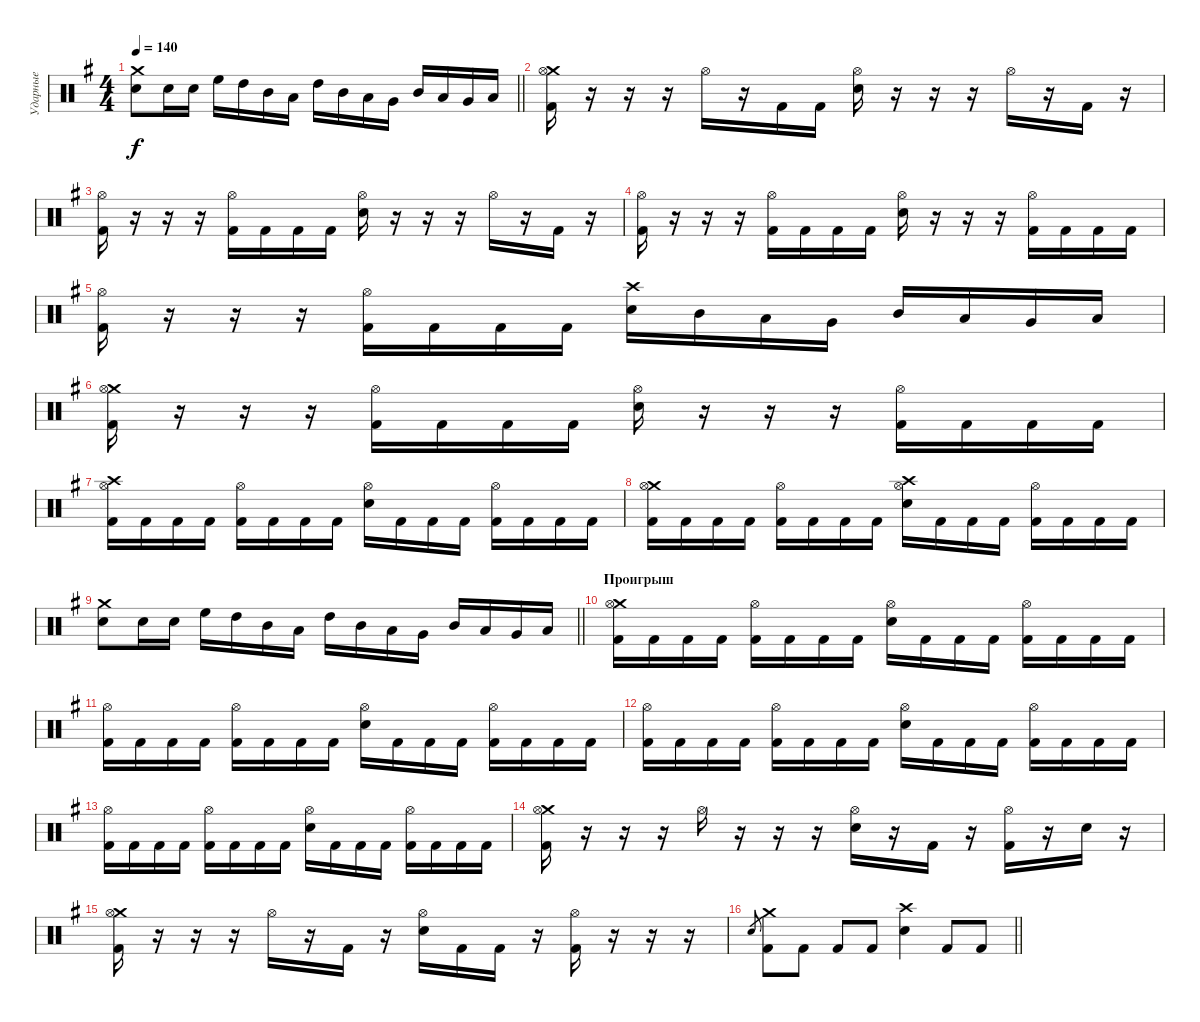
\track ("Ударные" "Ударные") {instrument percussion}
\staff {score}
\articulation defaults
\ts (4 4)
\tempo 140
\clef neutral
\barLineRight lightlight
\ks eminor
("Crash medium (hit)" "Electric Snare (hit)").8{dy f} "Electric Snare (hit)".16 "Electric Snare (hit)".16 "High Floor Tom (hit)".16 "High Tom (hit)".16 "Mid Tom (hit)".16 "Low Tom (hit)".16 "High Tom (hit)".16 "Mid Tom (hit)".16 "Low Tom (hit)".16 "Very Low Tom (hit)".16 "Mid Tom (hit)".16 "Low Tom (hit)".16 "Very Low Tom (hit)".16 "Low Floor Tom (hit)".16 |
("Crash medium (hit)" "Kick (hit) 2" "Hi-Hat (open)").16 r.16 r.16 r.16 "Hi-Hat (open)".16 r.16 "Kick (hit) 2".16 "Kick (hit) 2".16 ("Electric Snare (hit)" "Hi-Hat (open)").16 r.16 r.16 r.16 "Hi-Hat (open)".16 r.16 "Kick (hit) 2".16 r.16 |
("Kick (hit) 2" "Hi-Hat (open)").16 r.16 r.16 r.16 ("Kick (hit) 2" "Hi-Hat (open)").16 "Kick (hit) 2".16 "Kick (hit) 2".16 "Kick (hit) 2".16 ("Electric Snare (hit)" "Hi-Hat (open)").16 r.16 r.16 r.16 "Hi-Hat (open)".16 r.16 "Kick (hit) 2".16 r.16 |
("Kick (hit) 2" "Hi-Hat (open)").16 r.16 r.16 r.16 ("Kick (hit) 2" "Hi-Hat (open)").16 "Kick (hit) 2".16 "Kick (hit) 2".16 "Kick (hit) 2".16 ("Electric Snare (hit)" "Hi-Hat (open)").16 r.16 r.16 r.16 ("Kick (hit) 2" "Hi-Hat (open)").16 "Kick (hit) 2".16 "Kick (hit) 2".16 "Kick (hit) 2".16 |
("Kick (hit) 2" "Hi-Hat (open)").16 r.16 r.16 r.16 ("Kick (hit) 2" "Hi-Hat (open)").16 "Kick (hit) 2".16 "Kick (hit) 2".16 "Kick (hit) 2".16 ("Crash high (hit)" "Electric Snare (hit)").16 "Mid Tom (hit)".16 "Low Tom (hit)".16 "Very Low Tom (hit)".16 "Mid Tom (hit)".16 "Low Tom (hit)".16 "Very Low Tom (hit)".16 "Low Floor Tom (hit)".16 |
("Crash medium (hit)" "Kick (hit) 2" "Hi-Hat (open)").16 r.16 r.16 r.16 ("Kick (hit) 2" "Hi-Hat (open)").16 "Kick (hit) 2".16 "Kick (hit) 2".16 "Kick (hit) 2".16 ("Electric Snare (hit)" "Hi-Hat (open)").16 r.16 r.16 r.16 ("Kick (hit) 2" "Hi-Hat (open)").16 "Kick (hit) 2".16 "Kick (hit) 2".16 "Kick (hit) 2".16 |
("Crash high (hit)" "Kick (hit) 2" "Hi-Hat (open)").16 "Kick (hit) 2".16 "Kick (hit) 2".16 "Kick (hit) 2".16 ("Kick (hit) 2" "Hi-Hat (open)").16 "Kick (hit) 2".16 "Kick (hit) 2".16 "Kick (hit) 2".16 ("Electric Snare (hit)" "Hi-Hat (open)").16 "Kick (hit) 2".16 "Kick (hit) 2".16 "Kick (hit) 2".16 ("Kick (hit) 2" "Hi-Hat (open)").16 "Kick (hit) 2".16 "Kick (hit) 2".16 "Kick (hit) 2".16 |
("Crash medium (hit)" "Kick (hit) 2" "Hi-Hat (open)").16 "Kick (hit) 2".16 "Kick (hit) 2".16 "Kick (hit) 2".16 ("Kick (hit) 2" "Hi-Hat (open)").16 "Kick (hit) 2".16 "Kick (hit) 2".16 "Kick (hit) 2".16 ("Crash high (hit)" "Electric Snare (hit)" "Hi-Hat (open)").16 "Kick (hit) 2".16 "Kick (hit) 2".16 "Kick (hit) 2".16 ("Kick (hit) 2" "Hi-Hat (open)").16 "Kick (hit) 2".16 "Kick (hit) 2".16 "Kick (hit) 2".16 |
\barLineRight lightlight
("Crash medium (hit)" "Electric Snare (hit)").8 "Electric Snare (hit)".16 "Electric Snare (hit)".16 "High Floor Tom (hit)".16 "High Tom (hit)".16 "Mid Tom (hit)".16 "Low Tom (hit)".16 "High Tom (hit)".16 "Mid Tom (hit)".16 "Low Tom (hit)".16 "Very Low Tom (hit)".16 "Mid Tom (hit)".16 "Low Tom (hit)".16 "Very Low Tom (hit)".16 "Low Floor Tom (hit)".16 |
\section ("" "Проигрыш")
("Crash medium (hit)" "Kick (hit) 2" "Hi-Hat (open)").16 "Kick (hit) 2".16 "Kick (hit) 2".16 "Kick (hit) 2".16 ("Kick (hit) 2" "Hi-Hat (open)").16 "Kick (hit) 2".16 "Kick (hit) 2".16 "Kick (hit) 2".16 ("Electric Snare (hit)" "Hi-Hat (open)").16 "Kick (hit) 2".16 "Kick (hit) 2".16 "Kick (hit) 2".16 ("Kick (hit) 2" "Hi-Hat (open)").16 "Kick (hit) 2".16 "Kick (hit) 2".16 "Kick (hit) 2".16 |
("Kick (hit) 2" "Hi-Hat (open)").16 "Kick (hit) 2".16 "Kick (hit) 2".16 "Kick (hit) 2".16 ("Kick (hit) 2" "Hi-Hat (open)").16 "Kick (hit) 2".16 "Kick (hit) 2".16 "Kick (hit) 2".16 ("Electric Snare (hit)" "Hi-Hat (open)").16 "Kick (hit) 2".16 "Kick (hit) 2".16 "Kick (hit) 2".16 ("Kick (hit) 2" "Hi-Hat (open)").16 "Kick (hit) 2".16 "Kick (hit) 2".16 "Kick (hit) 2".16 |
("Kick (hit) 2" "Hi-Hat (open)").16 "Kick (hit) 2".16 "Kick (hit) 2".16 "Kick (hit) 2".16 ("Kick (hit) 2" "Hi-Hat (open)").16 "Kick (hit) 2".16 "Kick (hit) 2".16 "Kick (hit) 2".16 ("Electric Snare (hit)" "Hi-Hat (open)").16 "Kick (hit) 2".16 "Kick (hit) 2".16 "Kick (hit) 2".16 ("Kick (hit) 2" "Hi-Hat (open)").16 "Kick (hit) 2".16 "Kick (hit) 2".16 "Kick (hit) 2".16 |
("Kick (hit) 2" "Hi-Hat (open)").16 "Kick (hit) 2".16 "Kick (hit) 2".16 "Kick (hit) 2".16 ("Kick (hit) 2" "Hi-Hat (open)").16 "Kick (hit) 2".16 "Kick (hit) 2".16 "Kick (hit) 2".16 ("Electric Snare (hit)" "Hi-Hat (open)").16 "Kick (hit) 2".16 "Kick (hit) 2".16 "Kick (hit) 2".16 ("Kick (hit) 2" "Hi-Hat (open)").16 "Kick (hit) 2".16 "Kick (hit) 2".16 "Kick (hit) 2".16 |
("Crash medium (hit)" "Kick (hit) 2" "Hi-Hat (open)").16 r.16 r.16 r.16 "Hi-Hat (open)".16 r.16 r.16 r.16 ("Electric Snare (hit)" "Hi-Hat (open)").16 r.16 "Kick (hit) 2".16 r.16 ("Kick (hit) 2" "Hi-Hat (open)").16 r.16 "Electric Snare (hit)".16 r.16 |
("Crash medium (hit)" "Kick (hit) 2" "Hi-Hat (open)").16 r.16 r.16 r.16 "Hi-Hat (open)".16 r.16 "Kick (hit) 2".16 r.16 ("Electric Snare (hit)" "Hi-Hat (open)").16 "Kick (hit) 2".16 "Kick (hit) 2".16 r.16 ("Kick (hit) 2" "Hi-Hat (open)").16 r.16 r.16 r.16 |
\barLineRight lightlight "Electric Snare (hit)".8{gr}
("Crash medium (hit)" "Kick (hit) 2").8 "Kick (hit) 2".8 "Kick (hit) 2".8 "Kick (hit) 2".8 ("Crash high (hit)" "Electric Snare (hit)").4 "Kick (hit) 2".8 "Kick (hit) 2".8
